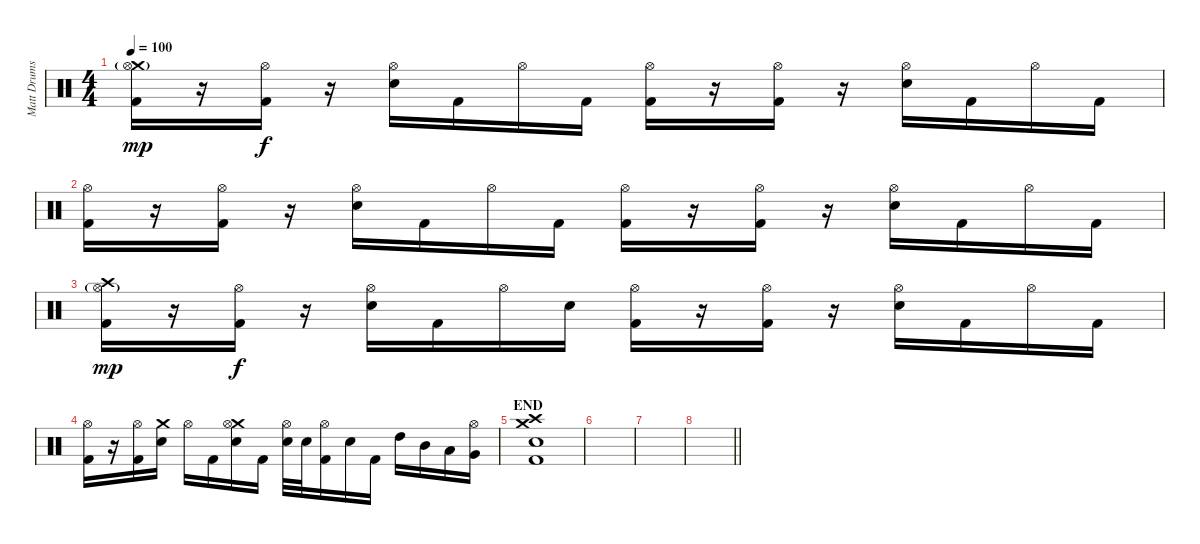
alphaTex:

\track ("Matt Drums" "Matt Drums") {instrument percussion}
\staff {score}
\articulation defaults
\ts (4 4)
\tempo 100
\clef neutral
\ks c
("Crash medium (hit)" "Hi-Hat (open)"{g} "Kick (hit) 2").16{dy mp} r.16 ("Hi-Hat (open)" "Kick (hit) 2").16{dy f} r.16 ("Hi-Hat (open)" "Electric Snare (hit)").16 "Kick (hit) 2".16 "Hi-Hat (open)".16 "Kick (hit) 2".16 ("Hi-Hat (open)" "Kick (hit) 2").16 r.16 ("Hi-Hat (open)" "Kick (hit) 2").16 r.16 ("Hi-Hat (open)" "Electric Snare (hit)").16 "Kick (hit) 2".16 "Hi-Hat (open)".16 "Kick (hit) 2".16 |
("Hi-Hat (open)" "Kick (hit) 2").16 r.16 ("Hi-Hat (open)" "Kick (hit) 2").16 r.16 ("Hi-Hat (open)" "Electric Snare (hit)").16 "Kick (hit) 2".16 "Hi-Hat (open)".16 "Kick (hit) 2".16 ("Hi-Hat (open)" "Kick (hit) 2").16 r.16 ("Hi-Hat (open)" "Kick (hit) 2").16 r.16 ("Hi-Hat (open)" "Electric Snare (hit)").16 "Kick (hit) 2".16 "Hi-Hat (open)".16 "Kick (hit) 2".16 |
("Crash high (hit)" "Hi-Hat (open)"{g} "Kick (hit) 2").16{dy mp} r.16 ("Hi-Hat (open)" "Kick (hit) 2").16{dy f} r.16 ("Hi-Hat (open)" "Electric Snare (hit)").16 "Kick (hit) 2".16 "Hi-Hat (open)".16 "Electric Snare (hit)".16 ("Hi-Hat (open)" "Kick (hit) 2").16 r.16 ("Hi-Hat (open)" "Kick (hit) 2").16 r.16 ("Hi-Hat (open)" "Electric Snare (hit)").16 "Kick (hit) 2".16 "Hi-Hat (open)".16 "Kick (hit) 2".16 |
("Hi-Hat (open)" "Kick (hit) 2").16 r.16 ("Hi-Hat (open)" "Kick (hit) 2").16 ("Crash medium (hit)" "Electric Snare (hit)").16 "Hi-Hat (open)".16 "Kick (hit) 2".16 ("Crash medium (hit)" "Hi-Hat (open)" "Electric Snare (hit)").16 "Kick (hit) 2".16 ("Hi-Hat (open)" "Electric Snare (hit)").32 "Electric Snare (hit)".32 ("Hi-Hat (open)" "Kick (hit) 2").16 "Electric Snare (hit)".16 "Kick (hit) 2".16 "High Tom (hit)".16 "Mid Tom (hit)".16 "Low Tom (hit)".16 ("Hi-Hat (open)" "Very Low Tom (hit)").16 |
\section ("" "END")
("Crash medium (hit)" "Crash high (hit)" "Electric Snare (hit)" "Kick (hit) 2").1 |
|
|
\barLineRight lightlight
